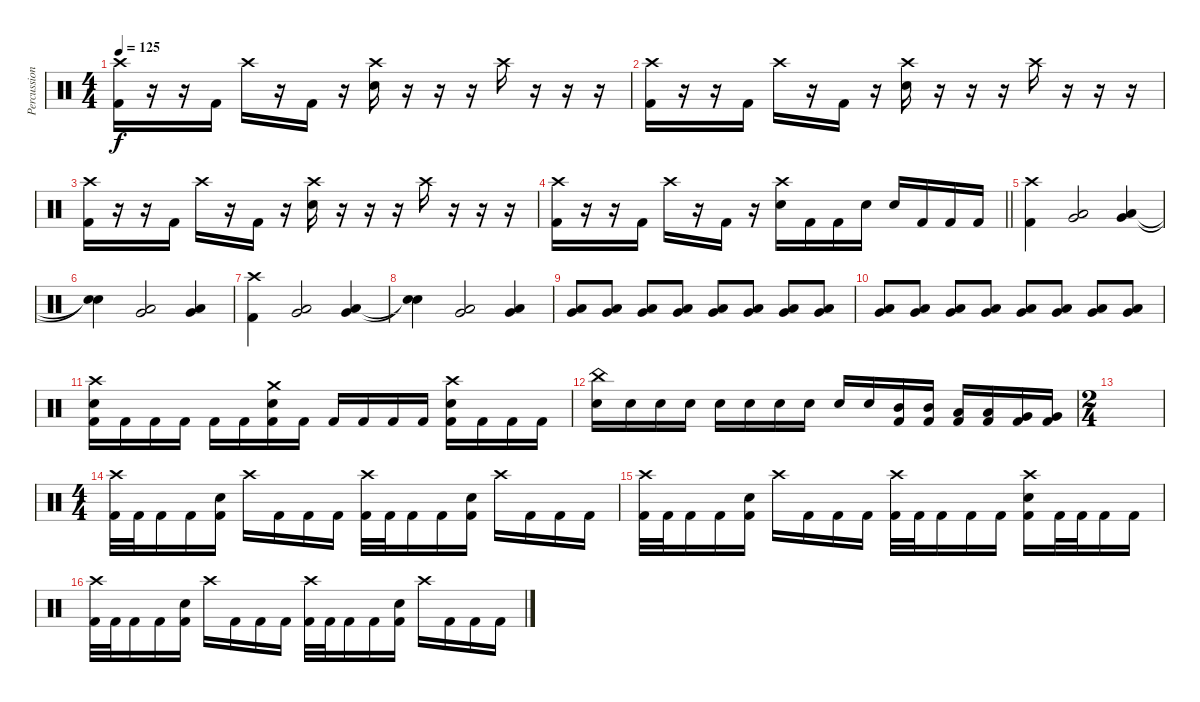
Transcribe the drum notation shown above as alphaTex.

\track ("Percussion" "Percussion") {instrument percussion}
\staff {score}
\articulation defaults
\ts (4 4)
\tempo 125
\clef neutral
\ks c
("Crash high (hit)" "Kick (hit) 2").16{dy f} r.16 r.16 "Kick (hit) 2".16 "Crash high (hit)".16 r.16 "Kick (hit) 2".16 r.16 ("Crash high (hit)" "Snare (hit) 2").16 r.16 r.16 r.16 "Crash high (hit)".16 r.16 r.16 r.16 |
("Crash high (hit)" "Kick (hit) 2").16 r.16 r.16 "Kick (hit) 2".16 "Crash high (hit)".16 r.16 "Kick (hit) 2".16 r.16 ("Crash high (hit)" "Snare (hit) 2").16 r.16 r.16 r.16 "Crash high (hit)".16 r.16 r.16 r.16 |
("Crash high (hit)" "Kick (hit) 2").16 r.16 r.16 "Kick (hit) 2".16 "Crash high (hit)".16 r.16 "Kick (hit) 2".16 r.16 ("Crash high (hit)" "Snare (hit) 2").16 r.16 r.16 r.16 "Crash high (hit)".16 r.16 r.16 r.16 |
\barLineRight lightlight
("Crash high (hit)" "Kick (hit) 2").16 r.16 r.16 "Kick (hit) 2".16 "Crash high (hit)".16 r.16 "Kick (hit) 2".16 r.16 ("Crash high (hit)" "Snare (hit) 2").16 "Kick (hit) 2".16 "Kick (hit) 2".16 "Snare (hit) 2".16 "Snare (hit) 2".16 "Kick (hit) 2".16 "Kick (hit) 2".16 "Kick (hit) 2".16 |
("Crash high (hit)" "Kick (hit) 2").4 ("Low Tom (hit)" "Very Low Tom (hit)").2 ("Low Tom (hit)" "Very Low Tom (hit)").4 |
("Snare (hit)"{t} "Snare (hit)"{t}).4 ("Low Tom (hit)" "Very Low Tom (hit)").2 ("Low Tom (hit)" "Very Low Tom (hit)").4 |
("Crash high (hit)" "Kick (hit) 2").4 ("Low Tom (hit)" "Very Low Tom (hit)").2 ("Low Tom (hit)" "Very Low Tom (hit)").4 |
("Snare (hit)"{t} "Snare (hit)"{t}).4 ("Low Tom (hit)" "Very Low Tom (hit)").2 ("Low Tom (hit)" "Very Low Tom (hit)").4 |
("Low Tom (hit)" "Very Low Tom (hit)").8 ("Low Tom (hit)" "Very Low Tom (hit)").8 ("Low Tom (hit)" "Very Low Tom (hit)").8 ("Low Tom (hit)" "Very Low Tom (hit)").8 ("Low Tom (hit)" "Very Low Tom (hit)").8 ("Low Tom (hit)" "Very Low Tom (hit)").8 ("Low Tom (hit)" "Very Low Tom (hit)").8 ("Low Tom (hit)" "Very Low Tom (hit)").8 |
("Low Tom (hit)" "Very Low Tom (hit)").8 ("Low Tom (hit)" "Very Low Tom (hit)").8 ("Low Tom (hit)" "Very Low Tom (hit)").8 ("Low Tom (hit)" "Very Low Tom (hit)").8 ("Low Tom (hit)" "Very Low Tom (hit)").8 ("Low Tom (hit)" "Very Low Tom (hit)").8 ("Low Tom (hit)" "Very Low Tom (hit)").8 ("Low Tom (hit)" "Very Low Tom (hit)").8 |
("Crash high (hit)" "Snare (hit) 2" "Kick (hit) 2").16 "Kick (hit) 2".16 "Kick (hit) 2".16 "Kick (hit) 2".16 "Kick (hit) 2".16 "Kick (hit) 2".16 ("Crash medium (hit)" "Snare (hit) 2" "Kick (hit) 2").16 "Kick (hit) 2".16 "Kick (hit) 2".16 "Kick (hit) 2".16 "Kick (hit) 2".16 "Kick (hit) 2".16 ("Crash high (hit)" "Snare (hit) 2" "Kick (hit) 2").16 "Kick (hit) 2".16 "Kick (hit) 2".16 "Kick (hit) 2".16 |
("China (hit)" "Snare (hit) 2").16 "Snare (hit) 2".16 "Snare (hit) 2".16 "Snare (hit) 2".16 "Snare (hit) 2".16 "Snare (hit) 2".16 "Snare (hit) 2".16 "Snare (hit) 2".16 "Snare (hit) 2".16 "Snare (hit) 2".16 ("Mid Tom (hit)" "Kick (hit) 2").16 ("Mid Tom (hit)" "Kick (hit) 2").16 ("Low Tom (hit)" "Kick (hit) 2").16 ("Low Tom (hit)" "Kick (hit) 2").16 ("Very Low Tom (hit)" "Kick (hit) 2").16 ("Very Low Tom (hit)" "Kick (hit) 2").16 |
\ts (2 4)
|
\ts (4 4)
("Crash high (hit)" "Kick (hit) 2").32 "Kick (hit) 2".32 "Kick (hit) 2".16 "Kick (hit) 2".16 ("Snare (hit) 2" "Kick (hit) 2").16 "Crash high (hit)".16 "Kick (hit) 2".16 "Kick (hit) 2".16 "Kick (hit) 2".16 ("Crash high (hit)" "Kick (hit) 2").32 "Kick (hit) 2".32 "Kick (hit) 2".16 "Kick (hit) 2".16 ("Snare (hit) 2" "Kick (hit) 2").16 "Crash high (hit)".16 "Kick (hit) 2".16 "Kick (hit) 2".16 "Kick (hit) 2".16 |
("Crash high (hit)" "Kick (hit) 2").32 "Kick (hit) 2".32 "Kick (hit) 2".16 "Kick (hit) 2".16 ("Snare (hit) 2" "Kick (hit) 2").16 "Crash high (hit)".16 "Kick (hit) 2".16 "Kick (hit) 2".16 "Kick (hit) 2".16 ("Crash high (hit)" "Kick (hit) 2").32 "Kick (hit) 2".32 "Kick (hit) 2".16 "Kick (hit) 2".16 "Kick (hit) 2".16 ("Crash high (hit)" "Snare (hit) 2" "Kick (hit) 2").16 "Kick (hit) 2".32 "Kick (hit) 2".32 "Kick (hit) 2".16 "Kick (hit) 2".16 |
("Crash high (hit)" "Kick (hit) 2").32 "Kick (hit) 2".32 "Kick (hit) 2".16 "Kick (hit) 2".16 ("Snare (hit) 2" "Kick (hit) 2").16 "Crash high (hit)".16 "Kick (hit) 2".16 "Kick (hit) 2".16 "Kick (hit) 2".16 ("Crash high (hit)" "Kick (hit) 2").32 "Kick (hit) 2".32 "Kick (hit) 2".16 "Kick (hit) 2".16 ("Snare (hit) 2" "Kick (hit) 2").16 "Crash high (hit)".16 "Kick (hit) 2".16 "Kick (hit) 2".16 "Kick (hit) 2".16
